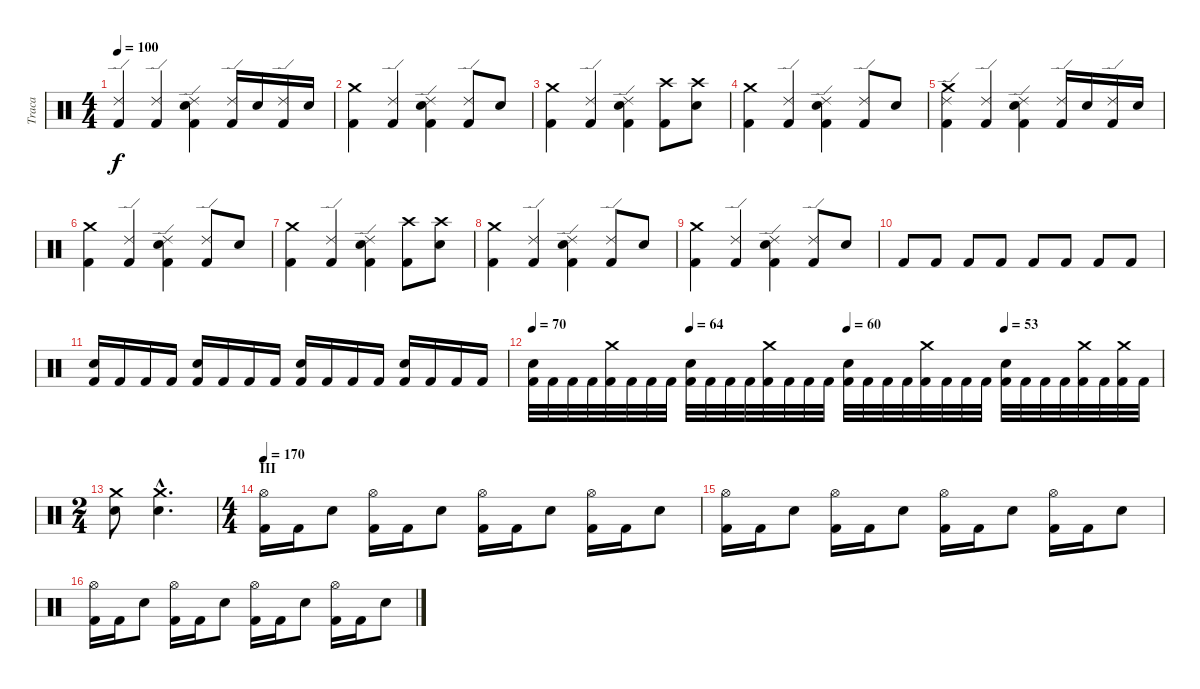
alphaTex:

\track ("Traca" "Traca") {instrument percussion}
\staff {score}
\articulation defaults
\ts (4 4)
\tempo 100
\clef neutral
\ks c
("Ride (edge) 2" "Kick (hit) 2").4{dy f} ("Ride (edge) 2" "Kick (hit) 2").4 ("Ride (edge) 2" "Snare (hit) 2" "Kick (hit) 2").4 ("Ride (edge) 2" "Kick (hit) 2").16 "Snare (hit) 2".16 ("Ride (edge) 2" "Kick (hit) 2").16 "Snare (hit) 2".16 |
("Crash medium (hit)" "Kick (hit) 2").4 ("Ride (edge) 2" "Kick (hit) 2").4 ("Ride (edge) 2" "Snare (hit) 2" "Kick (hit) 2").4 ("Ride (edge) 2" "Kick (hit) 2").8 "Snare (hit) 2".8 |
("Crash medium (hit)" "Kick (hit) 2").4 ("Ride (edge) 2" "Kick (hit) 2").4 ("Ride (edge) 2" "Snare (hit) 2" "Kick (hit) 2").4 ("Crash high (hit)" "Kick (hit) 2").8 ("Crash high (hit)" "Snare (hit) 2").8 |
("Crash medium (hit)" "Kick (hit) 2").4 ("Ride (edge) 2" "Kick (hit) 2").4 ("Ride (edge) 2" "Snare (hit) 2" "Kick (hit) 2").4 ("Ride (edge) 2" "Kick (hit) 2").8 "Snare (hit) 2".8 |
("Crash medium (hit)" "Ride (edge) 2" "Kick (hit) 2").4 ("Ride (edge) 2" "Kick (hit) 2").4 ("Ride (edge) 2" "Snare (hit) 2" "Kick (hit) 2").4 ("Ride (edge) 2" "Kick (hit) 2").16 "Snare (hit) 2".16 ("Ride (edge) 2" "Kick (hit) 2").16 "Snare (hit) 2".16 |
("Crash medium (hit)" "Kick (hit) 2").4 ("Ride (edge) 2" "Kick (hit) 2").4 ("Ride (edge) 2" "Snare (hit) 2" "Kick (hit) 2").4 ("Ride (edge) 2" "Kick (hit) 2").8 "Snare (hit) 2".8 |
("Crash medium (hit)" "Kick (hit) 2").4 ("Ride (edge) 2" "Kick (hit) 2").4 ("Ride (edge) 2" "Snare (hit) 2" "Kick (hit) 2").4 ("Crash high (hit)" "Kick (hit) 2").8 ("Crash high (hit)" "Snare (hit) 2").8 |
("Crash medium (hit)" "Kick (hit) 2").4 ("Ride (edge) 2" "Kick (hit) 2").4 ("Ride (edge) 2" "Snare (hit) 2" "Kick (hit) 2").4 ("Ride (edge) 2" "Kick (hit) 2").8 "Snare (hit) 2".8 |
("Crash medium (hit)" "Kick (hit) 2").4 ("Ride (edge) 2" "Kick (hit) 2").4 ("Ride (edge) 2" "Snare (hit) 2" "Kick (hit) 2").4 ("Ride (edge) 2" "Kick (hit) 2").8 "Snare (hit) 2".8 |
"Kick (hit) 2".8 "Kick (hit) 2".8 "Kick (hit) 2".8 "Kick (hit) 2".8 "Kick (hit) 2".8 "Kick (hit) 2".8 "Kick (hit) 2".8 "Kick (hit) 2".8 |
("Snare (hit) 2" "Kick (hit) 2").16 "Kick (hit) 2".16 "Kick (hit) 2".16 "Kick (hit) 2".16 ("Snare (hit) 2" "Kick (hit) 2").16 "Kick (hit) 2".16 "Kick (hit) 2".16 "Kick (hit) 2".16 ("Snare (hit) 2" "Kick (hit) 2").16 "Kick (hit) 2".16 "Kick (hit) 2".16 "Kick (hit) 2".16 ("Snare (hit) 2" "Kick (hit) 2").16 "Kick (hit) 2".16 "Kick (hit) 2".16 "Kick (hit) 2".16 |
\tempo 70
\tempo (64 0.25)
\tempo (60 0.5)
\tempo (53 0.75)
("Snare (hit) 2" "Kick (hit) 2").32 "Kick (hit) 2".32 "Kick (hit) 2".32 "Kick (hit) 2".32 ("Crash medium (hit)" "Kick (hit) 2").32 "Kick (hit) 2".32 "Kick (hit) 2".32 "Kick (hit) 2".32 ("Snare (hit) 2" "Kick (hit) 2").32 "Kick (hit) 2".32 "Kick (hit) 2".32 "Kick (hit) 2".32 ("Crash medium (hit)" "Kick (hit) 2").32 "Kick (hit) 2".32 "Kick (hit) 2".32 "Kick (hit) 2".32 ("Snare (hit) 2" "Kick (hit) 2").32 "Kick (hit) 2".32 "Kick (hit) 2".32 "Kick (hit) 2".32 ("Crash medium (hit)" "Kick (hit) 2").32 "Kick (hit) 2".32 "Kick (hit) 2".32 "Kick (hit) 2".32 ("Snare (hit) 2" "Kick (hit) 2").32 "Kick (hit) 2".32 "Kick (hit) 2".32 "Kick (hit) 2".32 ("Crash medium (hit)" "Kick (hit) 2").32 "Kick (hit) 2".32 ("Crash medium (hit)" "Kick (hit) 2").32 "Kick (hit) 2".32 |
\ts (2 4)
("Crash medium (hit)" "Snare (hit) 2").8 ("Crash medium (hit)"{hac} "Snare (hit) 2"{hac}).4{d} |
\ts (4 4)
\section ("" "III")
\tempo 170
("Hi-Hat (open)" "Kick (hit) 2").16 "Kick (hit) 2".16 "Snare (hit) 2".8 ("Hi-Hat (open)" "Kick (hit) 2").16 "Kick (hit) 2".16 "Snare (hit) 2".8 ("Hi-Hat (open)" "Kick (hit) 2").16 "Kick (hit) 2".16 "Snare (hit) 2".8 ("Hi-Hat (open)" "Kick (hit) 2").16 "Kick (hit) 2".16 "Snare (hit) 2".8 |
("Hi-Hat (open)" "Kick (hit) 2").16 "Kick (hit) 2".16 "Snare (hit) 2".8 ("Hi-Hat (open)" "Kick (hit) 2").16 "Kick (hit) 2".16 "Snare (hit) 2".8 ("Hi-Hat (open)" "Kick (hit) 2").16 "Kick (hit) 2".16 "Snare (hit) 2".8 ("Hi-Hat (open)" "Kick (hit) 2").16 "Kick (hit) 2".16 "Snare (hit) 2".8 |
("Hi-Hat (open)" "Kick (hit) 2").16 "Kick (hit) 2".16 "Snare (hit) 2".8 ("Hi-Hat (open)" "Kick (hit) 2").16 "Kick (hit) 2".16 "Snare (hit) 2".8 ("Hi-Hat (open)" "Kick (hit) 2").16 "Kick (hit) 2".16 "Snare (hit) 2".8 ("Hi-Hat (open)" "Kick (hit) 2").16 "Kick (hit) 2".16 "Snare (hit) 2".8
